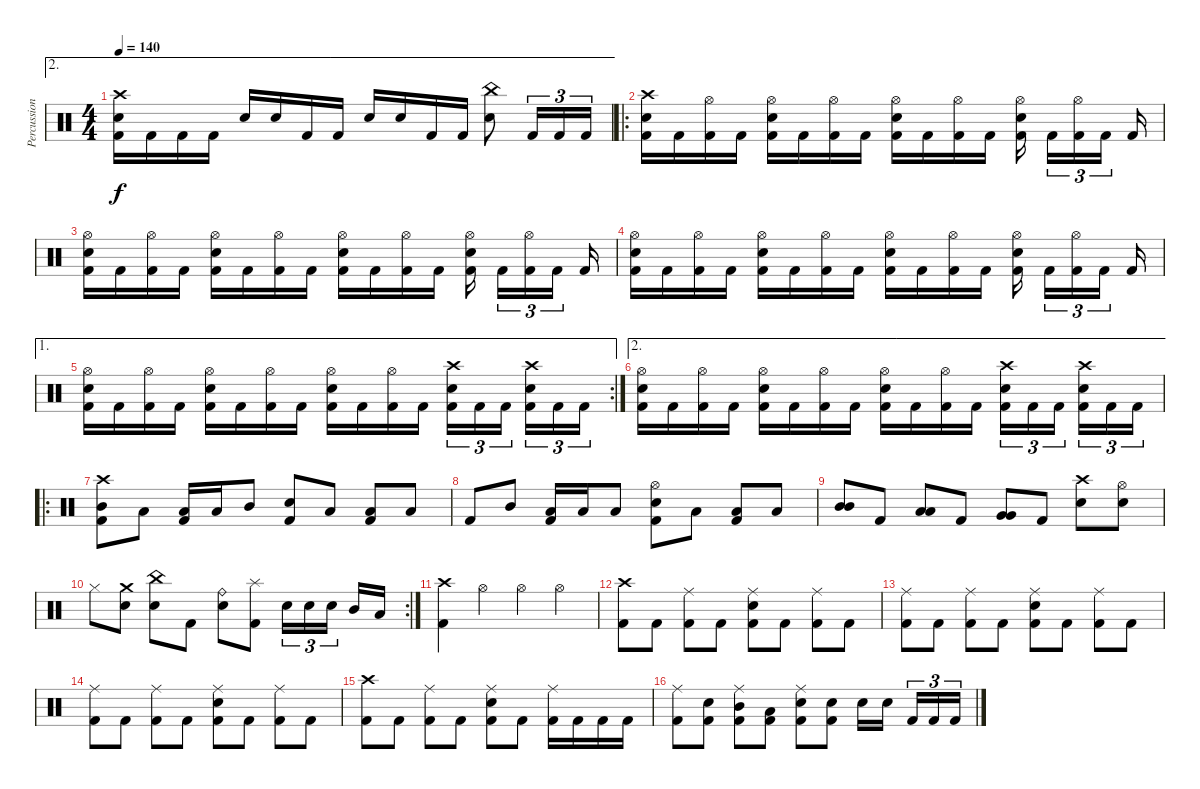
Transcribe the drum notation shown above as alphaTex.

\track ("Percussions" "Percussion") {instrument percussion}
\staff {score}
\articulation defaults
\ae 2
\ts (4 4)
\tempo 140
\clef neutral
\ks c
("Crash high (hit)" "Snare (hit) 2" "Kick (hit) 2").16{dy f} "Kick (hit) 2".16 "Kick (hit) 2".16 "Kick (hit) 2".16 "Snare (hit) 2".16 "Snare (hit) 2".16 "Kick (hit) 2".16 "Kick (hit) 2".16 "Snare (hit) 2".16 "Snare (hit) 2".16 "Kick (hit) 2".16 "Kick (hit) 2".16 ("China (hit)" "Snare (hit) 2").8 "Kick (hit) 2".16{tu (3 2)} "Kick (hit) 2".16{tu (3 2)} "Kick (hit) 2".16{tu (3 2)} |
\ro
("Crash high (hit)" "Snare (hit) 2" "Kick (hit) 2").16 "Kick (hit) 2".16 ("Hi-Hat (open)" "Kick (hit) 2").16 "Kick (hit) 2".16 ("Hi-Hat (open)" "Snare (hit) 2" "Kick (hit) 2").16 "Kick (hit) 2".16 ("Hi-Hat (open)" "Kick (hit) 2").16 "Kick (hit) 2".16 ("Hi-Hat (open)" "Snare (hit) 2" "Kick (hit) 2").16 "Kick (hit) 2".16 ("Hi-Hat (open)" "Kick (hit) 2").16 "Kick (hit) 2".16 ("Hi-Hat (open)" "Snare (hit) 2" "Kick (hit) 2").16 "Kick (hit) 2".16{tu (3 2)} ("Hi-Hat (open)" "Kick (hit) 2").16{tu (3 2)} "Kick (hit) 2".16{tu (3 2)} "Kick (hit) 2".16 |
("Hi-Hat (open)" "Snare (hit) 2" "Kick (hit) 2").16 "Kick (hit) 2".16 ("Hi-Hat (open)" "Kick (hit) 2").16 "Kick (hit) 2".16 ("Hi-Hat (open)" "Snare (hit) 2" "Kick (hit) 2").16 "Kick (hit) 2".16 ("Hi-Hat (open)" "Kick (hit) 2").16 "Kick (hit) 2".16 ("Hi-Hat (open)" "Snare (hit) 2" "Kick (hit) 2").16 "Kick (hit) 2".16 ("Hi-Hat (open)" "Kick (hit) 2").16 "Kick (hit) 2".16 ("Hi-Hat (open)" "Snare (hit) 2" "Kick (hit) 2").16 "Kick (hit) 2".16{tu (3 2)} ("Hi-Hat (open)" "Kick (hit) 2").16{tu (3 2)} "Kick (hit) 2".16{tu (3 2)} "Kick (hit) 2".16 |
("Hi-Hat (open)" "Snare (hit) 2" "Kick (hit) 2").16 "Kick (hit) 2".16 ("Hi-Hat (open)" "Kick (hit) 2").16 "Kick (hit) 2".16 ("Hi-Hat (open)" "Snare (hit) 2" "Kick (hit) 2").16 "Kick (hit) 2".16 ("Hi-Hat (open)" "Kick (hit) 2").16 "Kick (hit) 2".16 ("Hi-Hat (open)" "Snare (hit) 2" "Kick (hit) 2").16 "Kick (hit) 2".16 ("Hi-Hat (open)" "Kick (hit) 2").16 "Kick (hit) 2".16 ("Hi-Hat (open)" "Snare (hit) 2" "Kick (hit) 2").16 "Kick (hit) 2".16{tu (3 2)} ("Hi-Hat (open)" "Kick (hit) 2").16{tu (3 2)} "Kick (hit) 2".16{tu (3 2)} "Kick (hit) 2".16 |
\ae 1
\rc 2
("Hi-Hat (open)" "Snare (hit) 2" "Kick (hit) 2").16 "Kick (hit) 2".16 ("Hi-Hat (open)" "Kick (hit) 2").16 "Kick (hit) 2".16 ("Hi-Hat (open)" "Snare (hit) 2" "Kick (hit) 2").16 "Kick (hit) 2".16 ("Hi-Hat (open)" "Kick (hit) 2").16 "Kick (hit) 2".16 ("Hi-Hat (open)" "Snare (hit) 2" "Kick (hit) 2").16 "Kick (hit) 2".16 ("Hi-Hat (open)" "Kick (hit) 2").16 "Kick (hit) 2".16 ("Crash high (hit)" "Snare (hit) 2" "Kick (hit) 2").16{tu (3 2)} "Kick (hit) 2".16{tu (3 2)} "Kick (hit) 2".16{tu (3 2)} ("Crash high (hit)" "Snare (hit) 2" "Kick (hit) 2").16{tu (3 2)} "Kick (hit) 2".16{tu (3 2)} "Kick (hit) 2".16{tu (3 2)} |
\ae 2
("Hi-Hat (open)" "Snare (hit) 2" "Kick (hit) 2").16 "Kick (hit) 2".16 ("Hi-Hat (open)" "Kick (hit) 2").16 "Kick (hit) 2".16 ("Hi-Hat (open)" "Snare (hit) 2" "Kick (hit) 2").16 "Kick (hit) 2".16 ("Hi-Hat (open)" "Kick (hit) 2").16 "Kick (hit) 2".16 ("Hi-Hat (open)" "Snare (hit) 2" "Kick (hit) 2").16 "Kick (hit) 2".16 ("Hi-Hat (open)" "Kick (hit) 2").16 "Kick (hit) 2".16 ("Crash high (hit)" "Snare (hit) 2" "Kick (hit) 2").16{tu (3 2)} "Kick (hit) 2".16{tu (3 2)} "Kick (hit) 2".16{tu (3 2)} ("Crash high (hit)" "Snare (hit) 2" "Kick (hit) 2").16{tu (3 2)} "Kick (hit) 2".16{tu (3 2)} "Kick (hit) 2".16{tu (3 2)} |
\ro
("Crash high (hit)" "Mid Tom (hit)" "Kick (hit) 2").8 "Low Floor Tom (hit)".8 ("Low Floor Tom (hit)" "Kick (hit) 2").16 "Low Floor Tom (hit)".16 "Mid Tom (hit)".8 ("Snare (hit) 2" "Kick (hit) 2").8 "Low Floor Tom (hit)".8 ("Low Floor Tom (hit)" "Kick (hit) 2").8 "Low Floor Tom (hit)".8 |
"Kick (hit) 2".8 "Mid Tom (hit)".8 ("Low Floor Tom (hit)" "Kick (hit) 2").16 "Low Floor Tom (hit)".16 "Low Tom (hit)".8 ("Hi-Hat (open)" "Snare (hit) 2" "Kick (hit) 2").8 "Low Floor Tom (hit)".8 ("Low Floor Tom (hit)" "Kick (hit) 2").8 "Low Floor Tom (hit)".8 |
("Mid Tom (hit)" "Mid Tom (hit)").8{bd 240} "Kick (hit) 2".8 ("Low Tom (hit)" "Low Tom (hit)").8{bd 240} "Kick (hit) 2".8 ("Very Low Tom (hit)" "Very Low Tom (hit)").8{bd 240} "Kick (hit) 2".8 ("Crash high (hit)" "Snare (hit) 2").8 ("Hi-Hat (open)" "Snare (hit) 2").8 |
\rc 2 "Hi-Hat (closed)".8
("Crash medium (hit)" "Snare (hit) 2").8 ("China (hit)" "Snare (hit) 2").8 "Kick (hit) 2".8 ("Ride (bell)" "Snare (hit) 2").8 ("Splash (hit)" "Kick (hit) 2").8 "Snare (hit) 2".16{tu (3 2)} "Snare (hit) 2".16{tu (3 2)} "Snare (hit) 2".16{tu (3 2)} "Mid Tom (hit)".16 "Low Tom (hit)".16 |
("Crash high (hit)" "Kick (hit) 2").4 "Hi-Hat (open)".4 "Hi-Hat (open)".4 "Hi-Hat (open)".4 |
("Crash high (hit)" "Kick (hit) 2").8 "Kick (hit) 2".8 ("Ride (middle)" "Kick (hit) 2").8 "Kick (hit) 2".8 ("Ride (middle)" "Snare (hit) 2" "Kick (hit) 2").8 "Kick (hit) 2".8 ("Ride (middle)" "Kick (hit) 2").8 "Kick (hit) 2".8 |
("Ride (middle)" "Kick (hit) 2").8 "Kick (hit) 2".8 ("Ride (middle)" "Kick (hit) 2").8 "Kick (hit) 2".8 ("Ride (middle)" "Snare (hit) 2" "Kick (hit) 2").8 "Kick (hit) 2".8 ("Ride (middle)" "Kick (hit) 2").8 "Kick (hit) 2".8 |
("Ride (middle)" "Kick (hit) 2").8 "Kick (hit) 2".8 ("Ride (middle)" "Kick (hit) 2").8 "Kick (hit) 2".8 ("Ride (middle)" "Snare (hit) 2" "Kick (hit) 2").8 "Kick (hit) 2".8 ("Ride (middle)" "Kick (hit) 2").8 "Kick (hit) 2".8 |
("Crash high (hit)" "Kick (hit) 2").8 "Kick (hit) 2".8 ("Ride (middle)" "Kick (hit) 2").8 "Kick (hit) 2".8 ("Ride (middle)" "Snare (hit) 2" "Kick (hit) 2").8 "Kick (hit) 2".8 ("Ride (middle)" "Kick (hit) 2").16 "Kick (hit) 2".16 "Kick (hit) 2".16 "Kick (hit) 2".16 |
("Ride (middle)" "Kick (hit) 2").8 ("Snare (hit) 2" "Kick (hit) 2").8 ("Ride (middle)" "Mid Tom (hit)" "Kick (hit) 2").8 ("Low Tom (hit)" "Kick (hit) 2").8 ("Ride (middle)" "Snare (hit) 2" "Kick (hit) 2").8 ("Snare (hit) 2" "Kick (hit) 2").8 "Snare (hit) 2".16 "Snare (hit) 2".16 "Kick (hit) 2".16{tu (3 2)} "Kick (hit) 2".16{tu (3 2)} "Kick (hit) 2".16{tu (3 2)}
